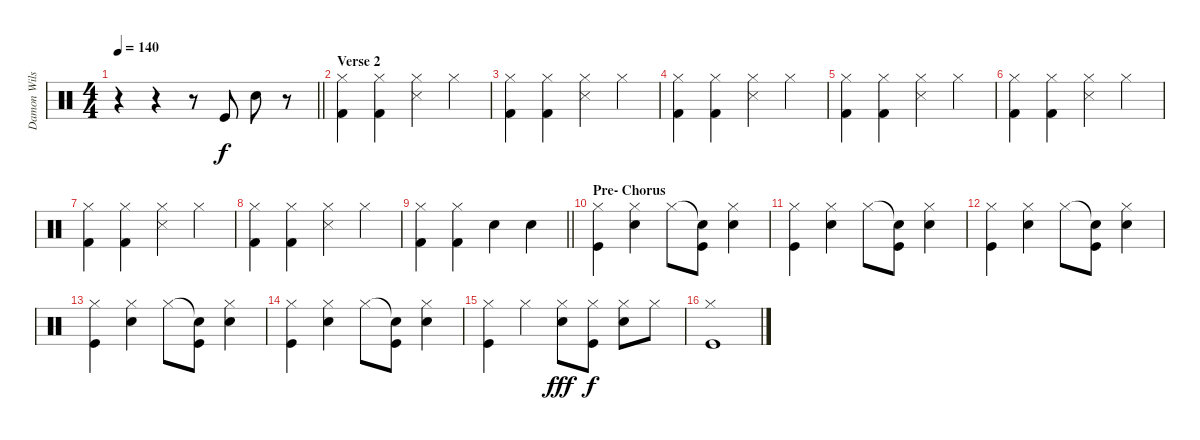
\track ("Damon Wilson" "Damon Wils") {instrument percussion}
\staff {score}
\articulation defaults
\ts (4 4)
\tempo 140
\clef neutral
\barLineRight lightlight
\ks c
r.4{dy f} r.4 r.8 "Kick (hit)".8 "Snare (hit) 2".8 r.8 |
\section ("" "Verse 2")
("Hi-Hat (closed)" "Kick (hit) 2").4 ("Hi-Hat (closed)" "Kick (hit) 2").4 ("Hi-Hat (closed)" "Snare (side stick) 3").4 "Hi-Hat (closed)".4 |
("Hi-Hat (closed)" "Kick (hit) 2").4 ("Hi-Hat (closed)" "Kick (hit) 2").4 ("Hi-Hat (closed)" "Snare (side stick) 3").4 "Hi-Hat (closed)".4 |
("Hi-Hat (closed)" "Kick (hit) 2").4 ("Hi-Hat (closed)" "Kick (hit) 2").4 ("Hi-Hat (closed)" "Snare (side stick) 3").4 "Hi-Hat (closed)".4 |
("Hi-Hat (closed)" "Kick (hit) 2").4 ("Hi-Hat (closed)" "Kick (hit) 2").4 ("Hi-Hat (closed)" "Snare (side stick) 3").4 "Hi-Hat (closed)".4 |
("Hi-Hat (closed)" "Kick (hit) 2").4 ("Hi-Hat (closed)" "Kick (hit) 2").4 ("Hi-Hat (closed)" "Snare (side stick) 3").4 "Hi-Hat (closed)".4 |
("Hi-Hat (closed)" "Kick (hit) 2").4 ("Hi-Hat (closed)" "Kick (hit) 2").4 ("Hi-Hat (closed)" "Snare (side stick) 3").4 "Hi-Hat (closed)".4 |
("Hi-Hat (closed)" "Kick (hit) 2").4 ("Hi-Hat (closed)" "Kick (hit) 2").4 ("Hi-Hat (closed)" "Snare (side stick) 3").4 "Hi-Hat (closed)".4 |
\barLineRight lightlight
("Hi-Hat (closed)" "Kick (hit) 2").4 ("Hi-Hat (closed)" "Kick (hit) 2").4 "Snare (hit) 2".4 "Snare (hit) 2".4 |
\section ("" "Pre- Chorus")
("Hi-Hat (closed)" "Kick (hit)").4 ("Hi-Hat (closed)" "Snare (hit) 2").4 "Hi-Hat (closed)".8 ("Snare (hit)"{t} "Kick (hit)").8 ("Hi-Hat (closed)" "Snare (hit) 2").4 |
("Hi-Hat (closed)" "Kick (hit)").4 ("Hi-Hat (closed)" "Snare (hit) 2").4 "Hi-Hat (closed)".8 ("Snare (hit)"{t} "Kick (hit)").8 ("Hi-Hat (closed)" "Snare (hit) 2").4 |
("Hi-Hat (closed)" "Kick (hit)").4 ("Hi-Hat (closed)" "Snare (hit) 2").4 "Hi-Hat (closed)".8 ("Snare (hit)"{t} "Kick (hit)").8 ("Hi-Hat (closed)" "Snare (hit) 2").4 |
("Hi-Hat (closed)" "Kick (hit)").4 ("Hi-Hat (closed)" "Snare (hit) 2").4 "Hi-Hat (closed)".8 ("Snare (hit)"{t} "Kick (hit)").8 ("Hi-Hat (closed)" "Snare (hit) 2").4 |
("Hi-Hat (closed)" "Kick (hit)").4 ("Hi-Hat (closed)" "Snare (hit) 2").4 "Hi-Hat (closed)".8 ("Snare (hit)"{t} "Kick (hit)").8 ("Hi-Hat (closed)" "Snare (hit) 2").4 |
("Hi-Hat (closed)" "Kick (hit)").4 "Hi-Hat (closed)".4 ("Hi-Hat (closed)" "Snare (hit) 2").8{dy fff} ("Hi-Hat (closed)" "Kick (hit)").8{dy f} ("Hi-Hat (closed)" "Snare (hit) 2").8 "Hi-Hat (closed)".8 |
("Hi-Hat (closed)" "Kick (hit)").1
